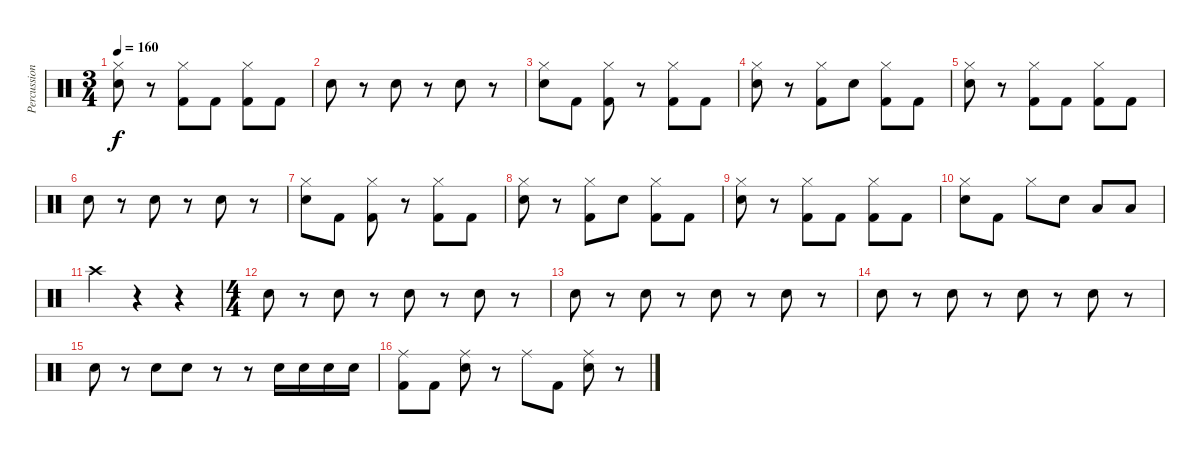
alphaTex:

\track ("Percussion" "Percussion") {instrument percussion}
\staff {score}
\articulation defaults
\ts (3 4)
\tempo 160
\clef neutral
\ks c
("Hi-Hat (closed)" "Electric Snare (hit)").8{dy f} r.8 ("Hi-Hat (closed)" "Kick (hit) 2").8 "Kick (hit) 2".8 ("Hi-Hat (closed)" "Kick (hit) 2").8 "Kick (hit) 2".8 |
"Electric Snare (hit)".8 r.8 "Electric Snare (hit)".8 r.8 "Electric Snare (hit)".8 r.8 |
("Hi-Hat (closed)" "Electric Snare (hit)").8 "Kick (hit) 2".8 ("Hi-Hat (closed)" "Kick (hit) 2").8 r.8 ("Hi-Hat (closed)" "Kick (hit) 2").8 "Kick (hit) 2".8 |
("Hi-Hat (closed)" "Electric Snare (hit)").8 r.8 ("Hi-Hat (closed)" "Kick (hit) 2").8 "Electric Snare (hit)".8 ("Hi-Hat (closed)" "Kick (hit) 2").8 "Kick (hit) 2".8 |
("Hi-Hat (closed)" "Electric Snare (hit)").8 r.8 ("Hi-Hat (closed)" "Kick (hit) 2").8 "Kick (hit) 2".8 ("Hi-Hat (closed)" "Kick (hit) 2").8 "Kick (hit) 2".8 |
"Electric Snare (hit)".8 r.8 "Electric Snare (hit)".8 r.8 "Electric Snare (hit)".8 r.8 |
("Hi-Hat (closed)" "Electric Snare (hit)").8 "Kick (hit) 2".8 ("Hi-Hat (closed)" "Kick (hit) 2").8 r.8 ("Hi-Hat (closed)" "Kick (hit) 2").8 "Kick (hit) 2".8 |
("Hi-Hat (closed)" "Electric Snare (hit)").8 r.8 ("Hi-Hat (closed)" "Kick (hit) 2").8 "Electric Snare (hit)".8 ("Hi-Hat (closed)" "Kick (hit) 2").8 "Kick (hit) 2".8 |
("Hi-Hat (closed)" "Electric Snare (hit)").8 r.8 ("Hi-Hat (closed)" "Kick (hit) 2").8 "Kick (hit) 2".8 ("Hi-Hat (closed)" "Kick (hit) 2").8 "Kick (hit) 2".8 |
("Hi-Hat (closed)" "Electric Snare (hit)").8 "Kick (hit) 2".8 "Hi-Hat (closed)".8 "Electric Snare (hit)".8 "Low Tom (hit)".8 "Low Tom (hit)".8 |
"Crash high (hit)".4 r.4 r.4 |
\ts (4 4)
"Electric Snare (hit)".8 r.8 "Electric Snare (hit)".8 r.8 "Electric Snare (hit)".8 r.8 "Electric Snare (hit)".8 r.8 |
"Electric Snare (hit)".8 r.8 "Electric Snare (hit)".8 r.8 "Electric Snare (hit)".8 r.8 "Electric Snare (hit)".8 r.8 |
"Electric Snare (hit)".8 r.8 "Electric Snare (hit)".8 r.8 "Electric Snare (hit)".8 r.8 "Electric Snare (hit)".8 r.8 |
"Electric Snare (hit)".8 r.8 "Electric Snare (hit)".8 "Electric Snare (hit)".8 r.8 r.8 "Electric Snare (hit)".16 "Electric Snare (hit)".16 "Electric Snare (hit)".16 "Electric Snare (hit)".16 |
("Ride (middle)" "Kick (hit) 2").8 "Kick (hit) 2".8 ("Ride (middle)" "Electric Snare (hit)").8 r.8 "Ride (middle)".8 "Kick (hit) 2".8 ("Ride (middle)" "Electric Snare (hit)").8 r.8
